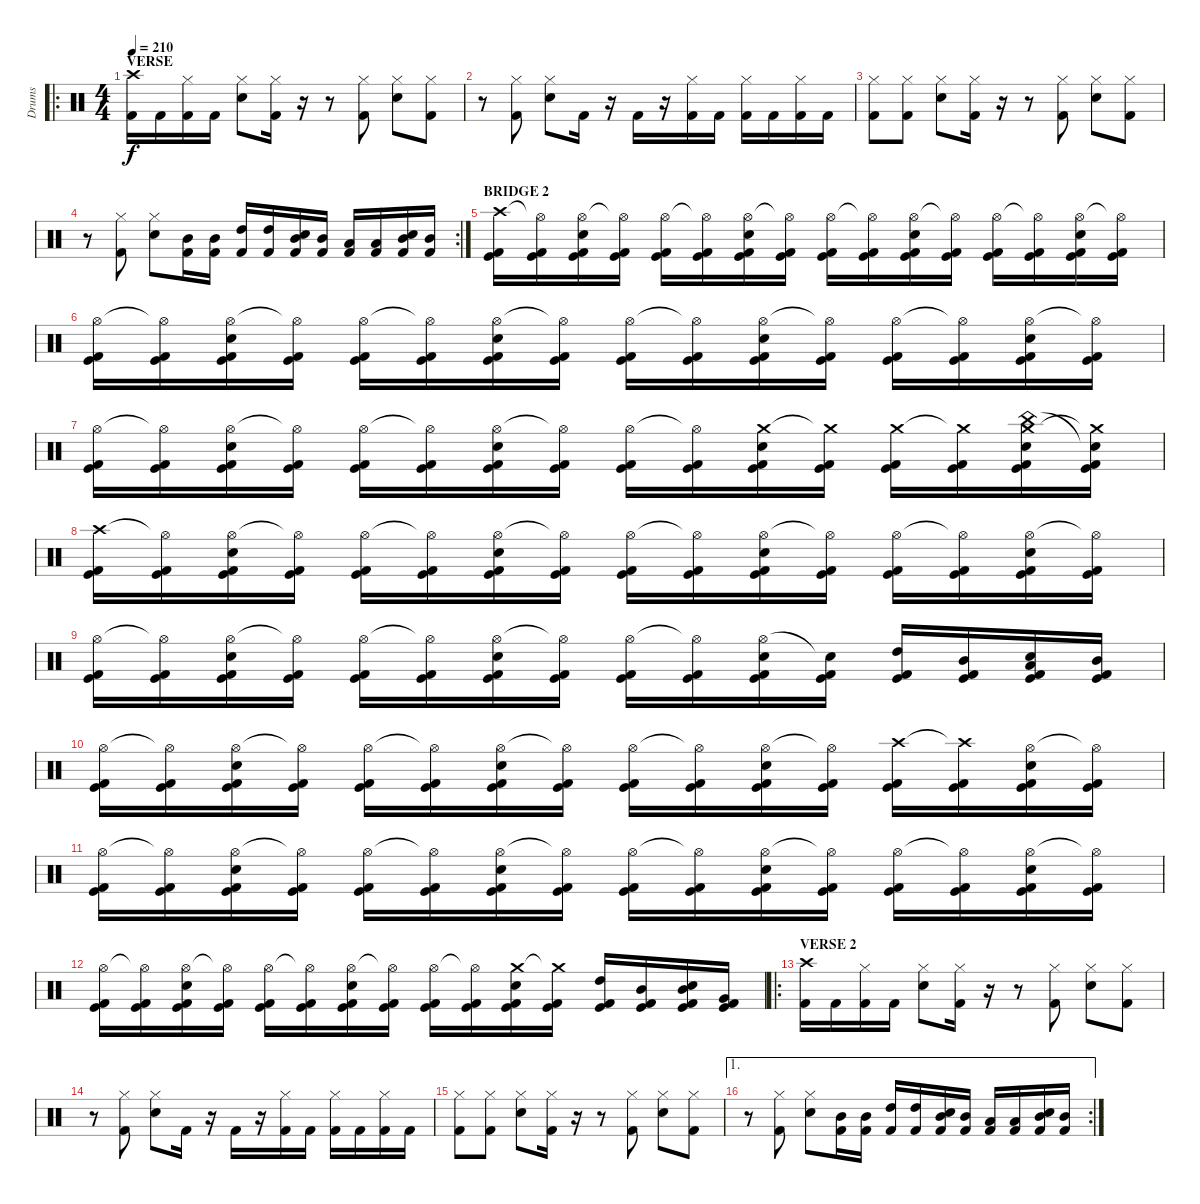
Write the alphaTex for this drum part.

\track ("Drums" "Drums") {instrument percussion}
\staff {score}
\articulation defaults
\ro
\ts (4 4)
\section ("" "VERSE")
\tempo 210
\clef neutral
\ks c
("Crash high (hit)" "Kick (hit) 2").16{dy f} "Kick (hit) 2".16 ("Hi-Hat (closed)" "Kick (hit) 2").16 "Kick (hit) 2".16 ("Hi-Hat (closed)" "Electric Snare (hit)").8 ("Hi-Hat (closed)" "Kick (hit) 2").16 r.16 r.8 ("Hi-Hat (closed)" "Kick (hit) 2").8 ("Hi-Hat (closed)" "Electric Snare (hit)").8 ("Hi-Hat (closed)" "Kick (hit) 2").8 |
r.8 ("Hi-Hat (closed)" "Kick (hit) 2").8 ("Hi-Hat (closed)" "Electric Snare (hit)").8 "Kick (hit) 2".16 r.16 "Kick (hit) 2".16 r.16 ("Hi-Hat (closed)" "Kick (hit) 2").16 "Kick (hit) 2".16 ("Hi-Hat (closed)" "Kick (hit) 2").16 "Kick (hit) 2".16 ("Hi-Hat (closed)" "Kick (hit) 2").16 "Kick (hit) 2".16 |
("Hi-Hat (closed)" "Kick (hit) 2").8 ("Hi-Hat (closed)" "Kick (hit) 2").8 ("Hi-Hat (closed)" "Electric Snare (hit)").8 ("Hi-Hat (closed)" "Kick (hit) 2").16 r.16 r.8 ("Hi-Hat (closed)" "Kick (hit) 2").8 ("Hi-Hat (closed)" "Electric Snare (hit)").8 ("Hi-Hat (closed)" "Kick (hit) 2").8 |
\rc 2
r.8 ("Hi-Hat (closed)" "Kick (hit) 2").8 ("Hi-Hat (closed)" "Electric Snare (hit)").8 ("Mid Tom (hit)" "Kick (hit) 2").16 ("Mid Tom (hit)" "Kick (hit) 2").16 ("High Tom (hit)" "Kick (hit) 2").16 ("High Tom (hit)" "Kick (hit) 2").16 ("Mid Tom (hit)" "Electric Snare (hit)" "Kick (hit) 2").16 ("Mid Tom (hit)" "Kick (hit) 2").16 ("Low Tom (hit)" "Kick (hit) 2").16 ("Low Tom (hit)" "Kick (hit) 2").16 ("Mid Tom (hit)" "Electric Snare (hit)" "Kick (hit) 2").16 ("Mid Tom (hit)" "Kick (hit) 2").16 |
\section ("" "BRIDGE 2")
("Crash high (hit)" "Kick (hit)" "Kick (hit) 2").16 ("Hi-Hat (open)"{t} "Kick (hit)" "Kick (hit) 2").16 ("Hi-Hat (open)" "Electric Snare (hit)" "Kick (hit)" "Kick (hit) 2").16 ("Hi-Hat (open)"{t} "Kick (hit)" "Kick (hit) 2").16 ("Hi-Hat (open)" "Kick (hit)" "Kick (hit) 2").16 ("Hi-Hat (open)"{t} "Kick (hit)" "Kick (hit) 2").16 ("Hi-Hat (open)" "Electric Snare (hit)" "Kick (hit)" "Kick (hit) 2").16 ("Hi-Hat (open)"{t} "Kick (hit)" "Kick (hit) 2").16 ("Hi-Hat (open)" "Kick (hit)" "Kick (hit) 2").16 ("Hi-Hat (open)"{t} "Kick (hit)" "Kick (hit) 2").16 ("Hi-Hat (open)" "Electric Snare (hit)" "Kick (hit)" "Kick (hit) 2").16 ("Hi-Hat (open)"{t} "Kick (hit)" "Kick (hit) 2").16 ("Hi-Hat (open)" "Kick (hit)" "Kick (hit) 2").16 ("Hi-Hat (open)"{t} "Kick (hit)" "Kick (hit) 2").16 ("Hi-Hat (open)" "Electric Snare (hit)" "Kick (hit)" "Kick (hit) 2").16 ("Hi-Hat (open)"{t} "Kick (hit)" "Kick (hit) 2").16 |
("Hi-Hat (open)" "Kick (hit)" "Kick (hit) 2").16 ("Hi-Hat (open)"{t} "Kick (hit)" "Kick (hit) 2").16 ("Hi-Hat (open)" "Electric Snare (hit)" "Kick (hit)" "Kick (hit) 2").16 ("Hi-Hat (open)"{t} "Kick (hit)" "Kick (hit) 2").16 ("Hi-Hat (open)" "Kick (hit)" "Kick (hit) 2").16 ("Hi-Hat (open)"{t} "Kick (hit)" "Kick (hit) 2").16 ("Hi-Hat (open)" "Electric Snare (hit)" "Kick (hit)" "Kick (hit) 2").16 ("Hi-Hat (open)"{t} "Kick (hit)" "Kick (hit) 2").16 ("Hi-Hat (open)" "Kick (hit)" "Kick (hit) 2").16 ("Hi-Hat (open)"{t} "Kick (hit)" "Kick (hit) 2").16 ("Hi-Hat (open)" "Electric Snare (hit)" "Kick (hit)" "Kick (hit) 2").16 ("Hi-Hat (open)"{t} "Kick (hit)" "Kick (hit) 2").16 ("Hi-Hat (open)" "Kick (hit)" "Kick (hit) 2").16 ("Hi-Hat (open)"{t} "Kick (hit)" "Kick (hit) 2").16 ("Hi-Hat (open)" "Electric Snare (hit)" "Kick (hit)" "Kick (hit) 2").16 ("Hi-Hat (open)"{t} "Kick (hit)" "Kick (hit) 2").16 |
("Hi-Hat (open)" "Kick (hit)" "Kick (hit) 2").16 ("Hi-Hat (open)"{t} "Kick (hit)" "Kick (hit) 2").16 ("Hi-Hat (open)" "Electric Snare (hit)" "Kick (hit)" "Kick (hit) 2").16 ("Hi-Hat (open)"{t} "Kick (hit)" "Kick (hit) 2").16 ("Hi-Hat (open)" "Kick (hit)" "Kick (hit) 2").16 ("Hi-Hat (open)"{t} "Kick (hit)" "Kick (hit) 2").16 ("Hi-Hat (open)" "Electric Snare (hit)" "Kick (hit)" "Kick (hit) 2").16 ("Hi-Hat (open)"{t} "Kick (hit)" "Kick (hit) 2").16 ("Hi-Hat (open)" "Kick (hit)" "Kick (hit) 2").16 ("Hi-Hat (open)"{t} "Kick (hit)" "Kick (hit) 2").16 ("Crash medium (hit)" "Electric Snare (hit)" "Kick (hit)" "Kick (hit) 2").16 ("Crash medium (hit)"{t} "Kick (hit)" "Kick (hit) 2").16 ("Crash medium (hit)" "Kick (hit)" "Kick (hit) 2").16 ("Crash medium (hit)"{t} "Kick (hit)" "Kick (hit) 2").16 ("Crash medium (hit)" "China (hit)" "Electric Snare (hit)" "Kick (hit)" "Kick (hit) 2").16 ("Crash medium (hit)"{t} "Snare (hit)"{t} "Kick (hit)" "Kick (hit) 2").16 |
("Crash high (hit)" "Kick (hit)" "Kick (hit) 2").16 ("Hi-Hat (open)"{t} "Kick (hit)" "Kick (hit) 2").16 ("Hi-Hat (open)" "Electric Snare (hit)" "Kick (hit)" "Kick (hit) 2").16 ("Hi-Hat (open)"{t} "Kick (hit)" "Kick (hit) 2").16 ("Hi-Hat (open)" "Kick (hit)" "Kick (hit) 2").16 ("Hi-Hat (open)"{t} "Kick (hit)" "Kick (hit) 2").16 ("Hi-Hat (open)" "Electric Snare (hit)" "Kick (hit)" "Kick (hit) 2").16 ("Hi-Hat (open)"{t} "Kick (hit)" "Kick (hit) 2").16 ("Hi-Hat (open)" "Kick (hit)" "Kick (hit) 2").16 ("Hi-Hat (open)"{t} "Kick (hit)" "Kick (hit) 2").16 ("Hi-Hat (open)" "Electric Snare (hit)" "Kick (hit)" "Kick (hit) 2").16 ("Hi-Hat (open)"{t} "Kick (hit)" "Kick (hit) 2").16 ("Hi-Hat (open)" "Kick (hit)" "Kick (hit) 2").16 ("Hi-Hat (open)"{t} "Kick (hit)" "Kick (hit) 2").16 ("Hi-Hat (open)" "Electric Snare (hit)" "Kick (hit)" "Kick (hit) 2").16 ("Hi-Hat (open)"{t} "Kick (hit)" "Kick (hit) 2").16 |
("Hi-Hat (open)" "Kick (hit)" "Kick (hit) 2").16 ("Hi-Hat (open)"{t} "Kick (hit)" "Kick (hit) 2").16 ("Hi-Hat (open)" "Electric Snare (hit)" "Kick (hit)" "Kick (hit) 2").16 ("Hi-Hat (open)"{t} "Kick (hit)" "Kick (hit) 2").16 ("Hi-Hat (open)" "Kick (hit)" "Kick (hit) 2").16 ("Hi-Hat (open)"{t} "Kick (hit)" "Kick (hit) 2").16 ("Hi-Hat (open)" "Electric Snare (hit)" "Kick (hit)" "Kick (hit) 2").16 ("Hi-Hat (open)"{t} "Kick (hit)" "Kick (hit) 2").16 ("Hi-Hat (open)" "Kick (hit)" "Kick (hit) 2").16 ("Hi-Hat (open)"{t} "Kick (hit)" "Kick (hit) 2").16 ("Hi-Hat (open)" "Electric Snare (hit)" "Kick (hit)" "Kick (hit) 2").16 ("Snare (hit)"{t} "Kick (hit)" "Kick (hit) 2").16 ("High Tom (hit)" "Kick (hit)" "Kick (hit) 2").16 ("Mid Tom (hit)" "Kick (hit)" "Kick (hit) 2").16 ("Low Tom (hit)" "Electric Snare (hit)" "Kick (hit)" "Kick (hit) 2").16 ("Mid Tom (hit)" "Kick (hit)" "Kick (hit) 2").16 |
("Hi-Hat (open)" "Kick (hit)" "Kick (hit) 2").16 ("Hi-Hat (open)"{t} "Kick (hit)" "Kick (hit) 2").16 ("Hi-Hat (open)" "Electric Snare (hit)" "Kick (hit)" "Kick (hit) 2").16 ("Hi-Hat (open)"{t} "Kick (hit)" "Kick (hit) 2").16 ("Hi-Hat (open)" "Kick (hit)" "Kick (hit) 2").16 ("Hi-Hat (open)"{t} "Kick (hit)" "Kick (hit) 2").16 ("Hi-Hat (open)" "Electric Snare (hit)" "Kick (hit)" "Kick (hit) 2").16 ("Hi-Hat (open)"{t} "Kick (hit)" "Kick (hit) 2").16 ("Hi-Hat (open)" "Kick (hit)" "Kick (hit) 2").16 ("Hi-Hat (open)"{t} "Kick (hit)" "Kick (hit) 2").16 ("Hi-Hat (open)" "Electric Snare (hit)" "Kick (hit)" "Kick (hit) 2").16 ("Hi-Hat (open)"{t} "Kick (hit)" "Kick (hit) 2").16 ("Crash high (hit)" "Kick (hit)" "Kick (hit) 2").16 ("Crash high (hit)"{t} "Kick (hit)" "Kick (hit) 2").16 ("Hi-Hat (open)" "Electric Snare (hit)" "Kick (hit)" "Kick (hit) 2").16 ("Hi-Hat (open)"{t} "Kick (hit)" "Kick (hit) 2").16 |
("Hi-Hat (open)" "Kick (hit)" "Kick (hit) 2").16 ("Hi-Hat (open)"{t} "Kick (hit)" "Kick (hit) 2").16 ("Hi-Hat (open)" "Electric Snare (hit)" "Kick (hit)" "Kick (hit) 2").16 ("Hi-Hat (open)"{t} "Kick (hit)" "Kick (hit) 2").16 ("Hi-Hat (open)" "Kick (hit)" "Kick (hit) 2").16 ("Hi-Hat (open)"{t} "Kick (hit)" "Kick (hit) 2").16 ("Hi-Hat (open)" "Electric Snare (hit)" "Kick (hit)" "Kick (hit) 2").16 ("Hi-Hat (open)"{t} "Kick (hit)" "Kick (hit) 2").16 ("Hi-Hat (open)" "Kick (hit)" "Kick (hit) 2").16 ("Hi-Hat (open)"{t} "Kick (hit)" "Kick (hit) 2").16 ("Hi-Hat (open)" "Electric Snare (hit)" "Kick (hit)" "Kick (hit) 2").16 ("Hi-Hat (open)"{t} "Kick (hit)" "Kick (hit) 2").16 ("Hi-Hat (open)" "Kick (hit)" "Kick (hit) 2").16 ("Hi-Hat (open)"{t} "Kick (hit)" "Kick (hit) 2").16 ("Hi-Hat (open)" "Electric Snare (hit)" "Kick (hit)" "Kick (hit) 2").16 ("Hi-Hat (open)"{t} "Kick (hit)" "Kick (hit) 2").16 |
("Hi-Hat (open)" "Kick (hit)" "Kick (hit) 2").16 ("Hi-Hat (open)"{t} "Kick (hit)" "Kick (hit) 2").16 ("Hi-Hat (open)" "Electric Snare (hit)" "Kick (hit)" "Kick (hit) 2").16 ("Hi-Hat (open)"{t} "Kick (hit)" "Kick (hit) 2").16 ("Hi-Hat (open)" "Kick (hit)" "Kick (hit) 2").16 ("Hi-Hat (open)"{t} "Kick (hit)" "Kick (hit) 2").16 ("Hi-Hat (open)" "Electric Snare (hit)" "Kick (hit)" "Kick (hit) 2").16 ("Hi-Hat (open)"{t} "Kick (hit)" "Kick (hit) 2").16 ("Hi-Hat (open)" "Kick (hit)" "Kick (hit) 2").16 ("Hi-Hat (open)"{t} "Kick (hit)" "Kick (hit) 2").16 ("Crash medium (hit)" "Electric Snare (hit)" "Kick (hit)" "Kick (hit) 2").16 ("Crash medium (hit)"{t} "Kick (hit)" "Kick (hit) 2").16 ("High Tom (hit)" "Kick (hit)" "Kick (hit) 2").16 ("Mid Tom (hit)" "Kick (hit)" "Kick (hit) 2").16 ("Mid Tom (hit)" "Electric Snare (hit)" "Kick (hit)" "Kick (hit) 2").16 ("Very Low Tom (hit)" "Kick (hit)" "Kick (hit) 2").16 |
\ro
\section ("" "VERSE 2")
("Crash high (hit)" "Kick (hit) 2").16 "Kick (hit) 2".16 ("Hi-Hat (closed)" "Kick (hit) 2").16 "Kick (hit) 2".16 ("Hi-Hat (closed)" "Electric Snare (hit)").8 ("Hi-Hat (closed)" "Kick (hit) 2").16 r.16 r.8 ("Hi-Hat (closed)" "Kick (hit) 2").8 ("Hi-Hat (closed)" "Electric Snare (hit)").8 ("Hi-Hat (closed)" "Kick (hit) 2").8 |
r.8 ("Hi-Hat (closed)" "Kick (hit) 2").8 ("Hi-Hat (closed)" "Electric Snare (hit)").8 "Kick (hit) 2".16 r.16 "Kick (hit) 2".16 r.16 ("Hi-Hat (closed)" "Kick (hit) 2").16 "Kick (hit) 2".16 ("Hi-Hat (closed)" "Kick (hit) 2").16 "Kick (hit) 2".16 ("Hi-Hat (closed)" "Kick (hit) 2").16 "Kick (hit) 2".16 |
("Hi-Hat (closed)" "Kick (hit) 2").8 ("Hi-Hat (closed)" "Kick (hit) 2").8 ("Hi-Hat (closed)" "Electric Snare (hit)").8 ("Hi-Hat (closed)" "Kick (hit) 2").16 r.16 r.8 ("Hi-Hat (closed)" "Kick (hit) 2").8 ("Hi-Hat (closed)" "Electric Snare (hit)").8 ("Hi-Hat (closed)" "Kick (hit) 2").8 |
\ae 1
\rc 2
r.8 ("Hi-Hat (closed)" "Kick (hit) 2").8 ("Hi-Hat (closed)" "Electric Snare (hit)").8 ("Mid Tom (hit)" "Kick (hit) 2").16 ("Mid Tom (hit)" "Kick (hit) 2").16 ("High Tom (hit)" "Kick (hit) 2").16 ("High Tom (hit)" "Kick (hit) 2").16 ("Mid Tom (hit)" "Electric Snare (hit)" "Kick (hit) 2").16 ("Mid Tom (hit)" "Kick (hit) 2").16 ("Low Tom (hit)" "Kick (hit) 2").16 ("Low Tom (hit)" "Kick (hit) 2").16 ("Mid Tom (hit)" "Electric Snare (hit)" "Kick (hit) 2").16 ("Mid Tom (hit)" "Kick (hit) 2").16
